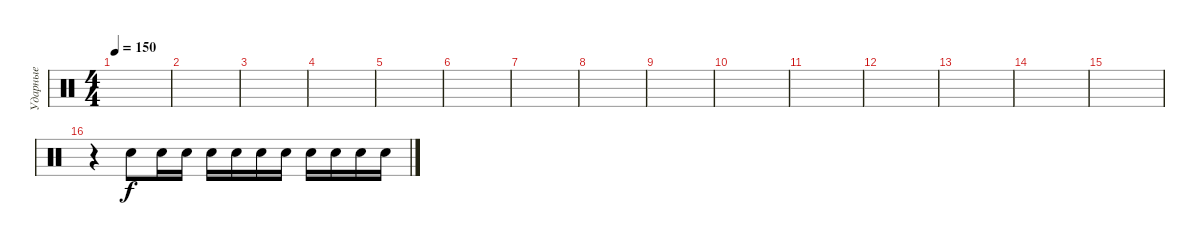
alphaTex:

\track ("Ударные" "Ударные") {instrument percussion}
\staff {score}
\articulation defaults
\ts (4 4)
\tempo 150
\clef neutral
\ks c
|
|
|
|
|
|
|
|
|
|
|
|
|
|
|
r.4 "Snare (hit) 2".8 "Snare (hit) 2".16 "Snare (hit) 2".16 "Snare (hit) 2".16 "Snare (hit) 2".16 "Snare (hit) 2".16 "Snare (hit) 2".16 "Snare (hit) 2".16 "Snare (hit) 2".16 "Snare (hit) 2".16 "Snare (hit) 2".16
